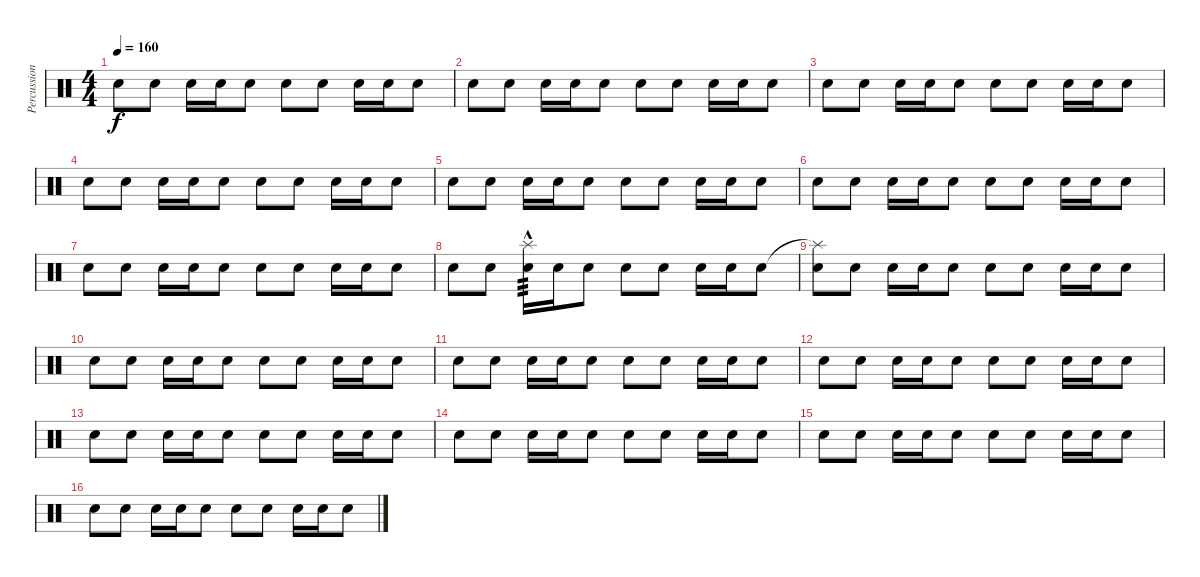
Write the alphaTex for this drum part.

\track ("Percussions" "Percussion") {instrument percussion}
\staff {score}
\articulation defaults
\ts (4 4)
\tempo 160
\clef neutral
\ks c "Snare (hit) 2".8{dy f} "Snare (hit) 2".8 "Snare (hit) 2".16 "Snare (hit) 2".16 "Snare (hit) 2".8 "Snare (hit) 2".8 "Snare (hit) 2".8 "Snare (hit) 2".16 "Snare (hit) 2".16 "Snare (hit) 2".8
|
"Snare (hit) 2".8 "Snare (hit) 2".8 "Snare (hit) 2".16 "Snare (hit) 2".16 "Snare (hit) 2".8 "Snare (hit) 2".8 "Snare (hit) 2".8 "Snare (hit) 2".16 "Snare (hit) 2".16 "Snare (hit) 2".8 |
"Snare (hit) 2".8 "Snare (hit) 2".8 "Snare (hit) 2".16 "Snare (hit) 2".16 "Snare (hit) 2".8 "Snare (hit) 2".8 "Snare (hit) 2".8 "Snare (hit) 2".16 "Snare (hit) 2".16 "Snare (hit) 2".8 |
"Snare (hit) 2".8 "Snare (hit) 2".8 "Snare (hit) 2".16 "Snare (hit) 2".16 "Snare (hit) 2".8 "Snare (hit) 2".8 "Snare (hit) 2".8 "Snare (hit) 2".16 "Snare (hit) 2".16 "Snare (hit) 2".8 |
"Snare (hit) 2".8 "Snare (hit) 2".8 "Snare (hit) 2".16 "Snare (hit) 2".16 "Snare (hit) 2".8 "Snare (hit) 2".8 "Snare (hit) 2".8 "Snare (hit) 2".16 "Snare (hit) 2".16 "Snare (hit) 2".8 |
"Snare (hit) 2".8 "Snare (hit) 2".8 "Snare (hit) 2".16 "Snare (hit) 2".16 "Snare (hit) 2".8 "Snare (hit) 2".8 "Snare (hit) 2".8 "Snare (hit) 2".16 "Snare (hit) 2".16 "Snare (hit) 2".8 |
"Snare (hit) 2".8 "Snare (hit) 2".8 "Snare (hit) 2".16 "Snare (hit) 2".16 "Snare (hit) 2".8 "Snare (hit) 2".8 "Snare (hit) 2".8 "Snare (hit) 2".16 "Snare (hit) 2".16 "Snare (hit) 2".8 |
"Snare (hit) 2".8 "Snare (hit) 2".8 ("Splash (hit)"{hac} "Snare (hit) 2").16{tp 3} "Snare (hit) 2".16 "Snare (hit) 2".8 "Snare (hit) 2".8 "Snare (hit) 2".8 "Snare (hit) 2".16 "Snare (hit) 2".16 "Snare (hit) 2".8 |
("Splash (hit)"{t} "Snare (hit) 2").8 "Snare (hit) 2".8 "Snare (hit) 2".16 "Snare (hit) 2".16 "Snare (hit) 2".8 "Snare (hit) 2".8 "Snare (hit) 2".8 "Snare (hit) 2".16 "Snare (hit) 2".16 "Snare (hit) 2".8 |
"Snare (hit) 2".8 "Snare (hit) 2".8 "Snare (hit) 2".16 "Snare (hit) 2".16 "Snare (hit) 2".8 "Snare (hit) 2".8 "Snare (hit) 2".8 "Snare (hit) 2".16 "Snare (hit) 2".16 "Snare (hit) 2".8 |
"Snare (hit) 2".8 "Snare (hit) 2".8 "Snare (hit) 2".16 "Snare (hit) 2".16 "Snare (hit) 2".8 "Snare (hit) 2".8 "Snare (hit) 2".8 "Snare (hit) 2".16 "Snare (hit) 2".16 "Snare (hit) 2".8 |
"Snare (hit) 2".8 "Snare (hit) 2".8 "Snare (hit) 2".16 "Snare (hit) 2".16 "Snare (hit) 2".8 "Snare (hit) 2".8 "Snare (hit) 2".8 "Snare (hit) 2".16 "Snare (hit) 2".16 "Snare (hit) 2".8 |
"Snare (hit) 2".8 "Snare (hit) 2".8 "Snare (hit) 2".16 "Snare (hit) 2".16 "Snare (hit) 2".8 "Snare (hit) 2".8 "Snare (hit) 2".8 "Snare (hit) 2".16 "Snare (hit) 2".16 "Snare (hit) 2".8 |
"Snare (hit) 2".8 "Snare (hit) 2".8 "Snare (hit) 2".16 "Snare (hit) 2".16 "Snare (hit) 2".8 "Snare (hit) 2".8 "Snare (hit) 2".8 "Snare (hit) 2".16 "Snare (hit) 2".16 "Snare (hit) 2".8 |
"Snare (hit) 2".8 "Snare (hit) 2".8 "Snare (hit) 2".16 "Snare (hit) 2".16 "Snare (hit) 2".8 "Snare (hit) 2".8 "Snare (hit) 2".8 "Snare (hit) 2".16 "Snare (hit) 2".16 "Snare (hit) 2".8 |
"Snare (hit) 2".8 "Snare (hit) 2".8 "Snare (hit) 2".16 "Snare (hit) 2".16 "Snare (hit) 2".8 "Snare (hit) 2".8 "Snare (hit) 2".8 "Snare (hit) 2".16 "Snare (hit) 2".16 "Snare (hit) 2".8
